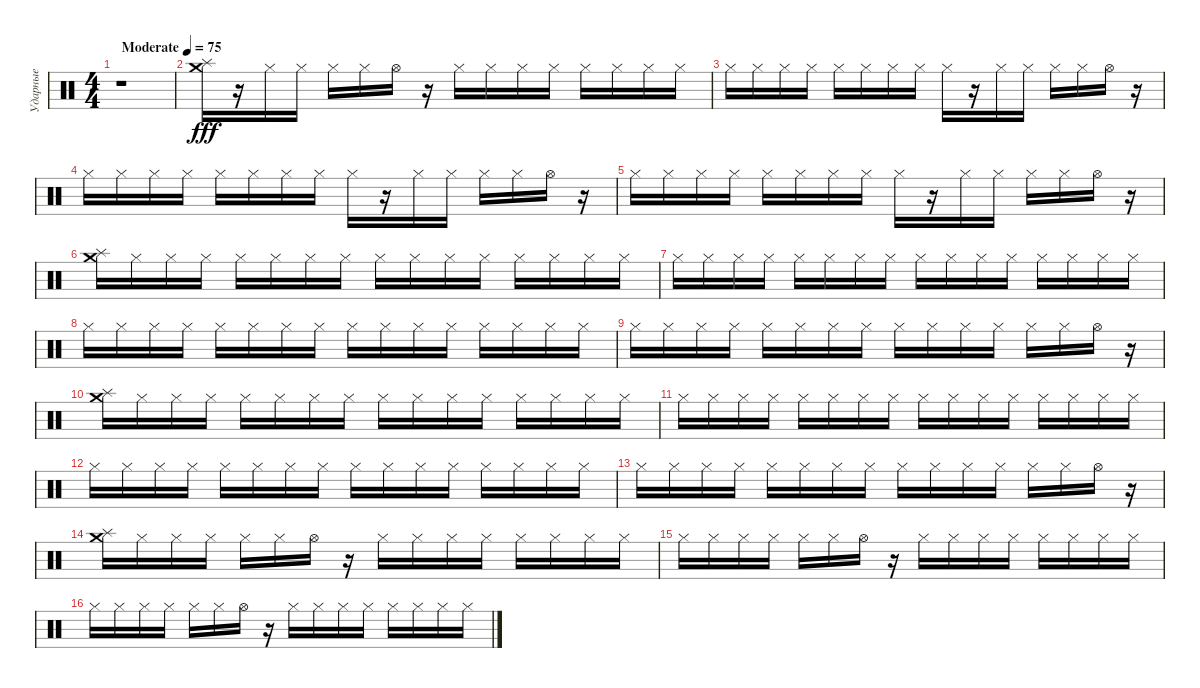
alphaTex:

\track ("Ударные" "Ударные") {instrument percussion}
\staff {score}
\articulation defaults
\ts (4 4)
\tempo (75 "Moderate")
\clef neutral
\ks c
r.1{dy fff} |
("Crash medium (hit)" "Splash (hit)").16 r.16 "Hi-Hat (closed)".16 "Hi-Hat (closed)".16 "Hi-Hat (closed)".16 "Hi-Hat (closed)".16 "Hi-Hat (open)".16 r.16 "Hi-Hat (closed)".16 "Hi-Hat (closed)".16 "Hi-Hat (closed)".16 "Hi-Hat (closed)".16 "Hi-Hat (closed)".16 "Hi-Hat (closed)".16 "Hi-Hat (closed)".16 "Hi-Hat (closed)".16 |
"Hi-Hat (closed)".16 "Hi-Hat (closed)".16 "Hi-Hat (closed)".16 "Hi-Hat (closed)".16 "Hi-Hat (closed)".16 "Hi-Hat (closed)".16 "Hi-Hat (closed)".16 "Hi-Hat (closed)".16 "Hi-Hat (closed)".16 r.16 "Hi-Hat (closed)".16 "Hi-Hat (closed)".16 "Hi-Hat (closed)".16 "Hi-Hat (closed)".16 "Hi-Hat (open)".16 r.16 |
"Hi-Hat (closed)".16 "Hi-Hat (closed)".16 "Hi-Hat (closed)".16 "Hi-Hat (closed)".16 "Hi-Hat (closed)".16 "Hi-Hat (closed)".16 "Hi-Hat (closed)".16 "Hi-Hat (closed)".16 "Hi-Hat (closed)".16 r.16 "Hi-Hat (closed)".16 "Hi-Hat (closed)".16 "Hi-Hat (closed)".16 "Hi-Hat (closed)".16 "Hi-Hat (open)".16 r.16 |
"Hi-Hat (closed)".16 "Hi-Hat (closed)".16 "Hi-Hat (closed)".16 "Hi-Hat (closed)".16 "Hi-Hat (closed)".16 "Hi-Hat (closed)".16 "Hi-Hat (closed)".16 "Hi-Hat (closed)".16 "Hi-Hat (closed)".16 r.16 "Hi-Hat (closed)".16 "Hi-Hat (closed)".16 "Hi-Hat (closed)".16 "Hi-Hat (closed)".16 "Hi-Hat (open)".16 r.16 |
("Crash medium (hit)" "Splash (hit)").16 "Hi-Hat (closed)".16 "Hi-Hat (closed)".16 "Hi-Hat (closed)".16 "Hi-Hat (closed)".16 "Hi-Hat (closed)".16 "Hi-Hat (closed)".16 "Hi-Hat (closed)".16 "Hi-Hat (closed)".16 "Hi-Hat (closed)".16 "Hi-Hat (closed)".16 "Hi-Hat (closed)".16 "Hi-Hat (closed)".16 "Hi-Hat (closed)".16 "Hi-Hat (closed)".16 "Hi-Hat (closed)".16 |
"Hi-Hat (closed)".16 "Hi-Hat (closed)".16 "Hi-Hat (closed)".16 "Hi-Hat (closed)".16 "Hi-Hat (closed)".16 "Hi-Hat (closed)".16 "Hi-Hat (closed)".16 "Hi-Hat (closed)".16 "Hi-Hat (closed)".16 "Hi-Hat (closed)".16 "Hi-Hat (closed)".16 "Hi-Hat (closed)".16 "Hi-Hat (closed)".16 "Hi-Hat (closed)".16 "Hi-Hat (closed)".16 "Hi-Hat (closed)".16 |
"Hi-Hat (closed)".16 "Hi-Hat (closed)".16 "Hi-Hat (closed)".16 "Hi-Hat (closed)".16 "Hi-Hat (closed)".16 "Hi-Hat (closed)".16 "Hi-Hat (closed)".16 "Hi-Hat (closed)".16 "Hi-Hat (closed)".16 "Hi-Hat (closed)".16 "Hi-Hat (closed)".16 "Hi-Hat (closed)".16 "Hi-Hat (closed)".16 "Hi-Hat (closed)".16 "Hi-Hat (closed)".16 "Hi-Hat (closed)".16 |
"Hi-Hat (closed)".16 "Hi-Hat (closed)".16 "Hi-Hat (closed)".16 "Hi-Hat (closed)".16 "Hi-Hat (closed)".16 "Hi-Hat (closed)".16 "Hi-Hat (closed)".16 "Hi-Hat (closed)".16 "Hi-Hat (closed)".16 "Hi-Hat (closed)".16 "Hi-Hat (closed)".16 "Hi-Hat (closed)".16 "Hi-Hat (closed)".16 "Hi-Hat (closed)".16 "Hi-Hat (open)".16 r.16 |
("Crash medium (hit)" "Splash (hit)").16 "Hi-Hat (closed)".16 "Hi-Hat (closed)".16 "Hi-Hat (closed)".16 "Hi-Hat (closed)".16 "Hi-Hat (closed)".16 "Hi-Hat (closed)".16 "Hi-Hat (closed)".16 "Hi-Hat (closed)".16 "Hi-Hat (closed)".16 "Hi-Hat (closed)".16 "Hi-Hat (closed)".16 "Hi-Hat (closed)".16 "Hi-Hat (closed)".16 "Hi-Hat (closed)".16 "Hi-Hat (closed)".16 |
"Hi-Hat (closed)".16 "Hi-Hat (closed)".16 "Hi-Hat (closed)".16 "Hi-Hat (closed)".16 "Hi-Hat (closed)".16 "Hi-Hat (closed)".16 "Hi-Hat (closed)".16 "Hi-Hat (closed)".16 "Hi-Hat (closed)".16 "Hi-Hat (closed)".16 "Hi-Hat (closed)".16 "Hi-Hat (closed)".16 "Hi-Hat (closed)".16 "Hi-Hat (closed)".16 "Hi-Hat (closed)".16 "Hi-Hat (closed)".16 |
"Hi-Hat (closed)".16 "Hi-Hat (closed)".16 "Hi-Hat (closed)".16 "Hi-Hat (closed)".16 "Hi-Hat (closed)".16 "Hi-Hat (closed)".16 "Hi-Hat (closed)".16 "Hi-Hat (closed)".16 "Hi-Hat (closed)".16 "Hi-Hat (closed)".16 "Hi-Hat (closed)".16 "Hi-Hat (closed)".16 "Hi-Hat (closed)".16 "Hi-Hat (closed)".16 "Hi-Hat (closed)".16 "Hi-Hat (closed)".16 |
"Hi-Hat (closed)".16 "Hi-Hat (closed)".16 "Hi-Hat (closed)".16 "Hi-Hat (closed)".16 "Hi-Hat (closed)".16 "Hi-Hat (closed)".16 "Hi-Hat (closed)".16 "Hi-Hat (closed)".16 "Hi-Hat (closed)".16 "Hi-Hat (closed)".16 "Hi-Hat (closed)".16 "Hi-Hat (closed)".16 "Hi-Hat (closed)".16 "Hi-Hat (closed)".16 "Hi-Hat (open)".16 r.16 |
("Crash medium (hit)" "Splash (hit)").16 "Hi-Hat (closed)".16 "Hi-Hat (closed)".16 "Hi-Hat (closed)".16 "Hi-Hat (closed)".16 "Hi-Hat (closed)".16 "Hi-Hat (open)".16 r.16 "Hi-Hat (closed)".16 "Hi-Hat (closed)".16 "Hi-Hat (closed)".16 "Hi-Hat (closed)".16 "Hi-Hat (closed)".16 "Hi-Hat (closed)".16 "Hi-Hat (closed)".16 "Hi-Hat (closed)".16 |
"Hi-Hat (closed)".16 "Hi-Hat (closed)".16 "Hi-Hat (closed)".16 "Hi-Hat (closed)".16 "Hi-Hat (closed)".16 "Hi-Hat (closed)".16 "Hi-Hat (open)".16 r.16 "Hi-Hat (closed)".16 "Hi-Hat (closed)".16 "Hi-Hat (closed)".16 "Hi-Hat (closed)".16 "Hi-Hat (closed)".16 "Hi-Hat (closed)".16 "Hi-Hat (closed)".16 "Hi-Hat (closed)".16 |
"Hi-Hat (closed)".16 "Hi-Hat (closed)".16 "Hi-Hat (closed)".16 "Hi-Hat (closed)".16 "Hi-Hat (closed)".16 "Hi-Hat (closed)".16 "Hi-Hat (open)".16 r.16 "Hi-Hat (closed)".16 "Hi-Hat (closed)".16 "Hi-Hat (closed)".16 "Hi-Hat (closed)".16 "Hi-Hat (closed)".16 "Hi-Hat (closed)".16 "Hi-Hat (closed)".16 "Hi-Hat (closed)".16
